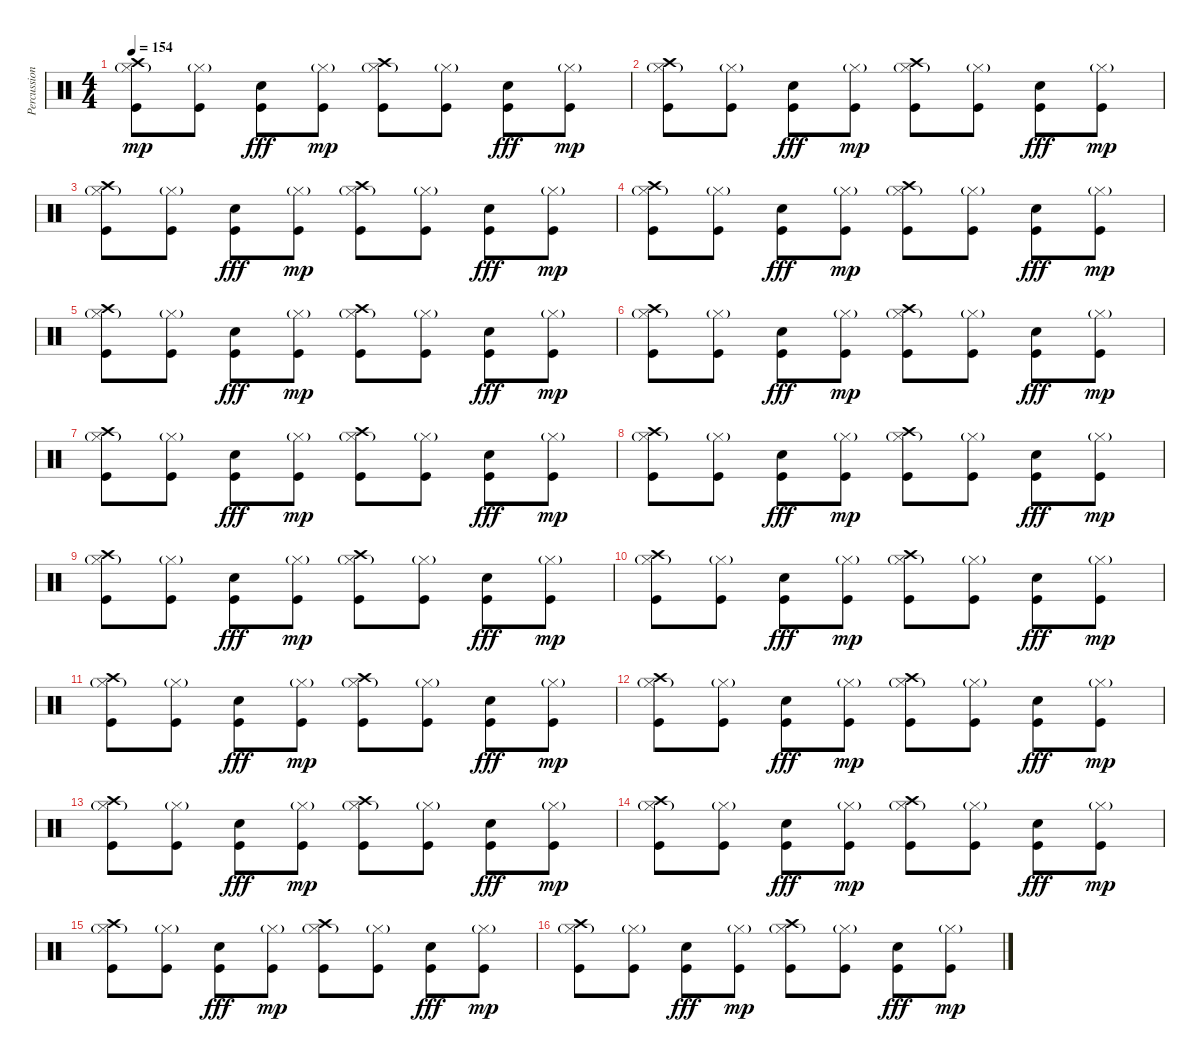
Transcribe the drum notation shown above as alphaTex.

\track ("Percussion" "Percussion") {instrument percussion}
\staff {score}
\articulation defaults
\ts (4 4)
\tempo 154
\clef neutral
\ks c
("Kick (hit)" "Hi-Hat (closed)"{g} "Crash high (hit)").8{dy mp} ("Kick (hit)" "Hi-Hat (closed)"{g}).8 ("Kick (hit)" "Electric Snare (hit)").8{dy fff} ("Kick (hit)" "Hi-Hat (closed)"{g}).8{dy mp} ("Kick (hit)" "Hi-Hat (closed)"{g} "Crash high (hit)").8 ("Kick (hit)" "Hi-Hat (closed)"{g}).8 ("Kick (hit)" "Electric Snare (hit)").8{dy fff} ("Kick (hit)" "Hi-Hat (closed)"{g}).8{dy mp} |
("Kick (hit)" "Hi-Hat (closed)"{g} "Crash high (hit)").8 ("Kick (hit)" "Hi-Hat (closed)"{g}).8 ("Kick (hit)" "Electric Snare (hit)").8{dy fff} ("Kick (hit)" "Hi-Hat (closed)"{g}).8{dy mp} ("Kick (hit)" "Hi-Hat (closed)"{g} "Crash high (hit)").8 ("Kick (hit)" "Hi-Hat (closed)"{g}).8 ("Kick (hit)" "Electric Snare (hit)").8{dy fff} ("Kick (hit)" "Hi-Hat (closed)"{g}).8{dy mp} |
("Kick (hit)" "Hi-Hat (closed)"{g} "Crash high (hit)").8 ("Kick (hit)" "Hi-Hat (closed)"{g}).8 ("Kick (hit)" "Electric Snare (hit)").8{dy fff} ("Kick (hit)" "Hi-Hat (closed)"{g}).8{dy mp} ("Kick (hit)" "Hi-Hat (closed)"{g} "Crash high (hit)").8 ("Kick (hit)" "Hi-Hat (closed)"{g}).8 ("Kick (hit)" "Electric Snare (hit)").8{dy fff} ("Kick (hit)" "Hi-Hat (closed)"{g}).8{dy mp} |
("Kick (hit)" "Hi-Hat (closed)"{g} "Crash high (hit)").8 ("Kick (hit)" "Hi-Hat (closed)"{g}).8 ("Kick (hit)" "Electric Snare (hit)").8{dy fff} ("Kick (hit)" "Hi-Hat (closed)"{g}).8{dy mp} ("Kick (hit)" "Hi-Hat (closed)"{g} "Crash high (hit)").8 ("Kick (hit)" "Hi-Hat (closed)"{g}).8 ("Kick (hit)" "Electric Snare (hit)").8{dy fff} ("Kick (hit)" "Hi-Hat (closed)"{g}).8{dy mp} |
("Kick (hit)" "Hi-Hat (closed)"{g} "Crash high (hit)").8 ("Kick (hit)" "Hi-Hat (closed)"{g}).8 ("Kick (hit)" "Electric Snare (hit)").8{dy fff} ("Kick (hit)" "Hi-Hat (closed)"{g}).8{dy mp} ("Kick (hit)" "Hi-Hat (closed)"{g} "Crash high (hit)").8 ("Kick (hit)" "Hi-Hat (closed)"{g}).8 ("Kick (hit)" "Electric Snare (hit)").8{dy fff} ("Kick (hit)" "Hi-Hat (closed)"{g}).8{dy mp} |
("Kick (hit)" "Hi-Hat (closed)"{g} "Crash high (hit)").8 ("Kick (hit)" "Hi-Hat (closed)"{g}).8 ("Kick (hit)" "Electric Snare (hit)").8{dy fff} ("Kick (hit)" "Hi-Hat (closed)"{g}).8{dy mp} ("Kick (hit)" "Hi-Hat (closed)"{g} "Crash high (hit)").8 ("Kick (hit)" "Hi-Hat (closed)"{g}).8 ("Kick (hit)" "Electric Snare (hit)").8{dy fff} ("Kick (hit)" "Hi-Hat (closed)"{g}).8{dy mp} |
("Kick (hit)" "Hi-Hat (closed)"{g} "Crash high (hit)").8 ("Kick (hit)" "Hi-Hat (closed)"{g}).8 ("Kick (hit)" "Electric Snare (hit)").8{dy fff} ("Kick (hit)" "Hi-Hat (closed)"{g}).8{dy mp} ("Kick (hit)" "Hi-Hat (closed)"{g} "Crash high (hit)").8 ("Kick (hit)" "Hi-Hat (closed)"{g}).8 ("Kick (hit)" "Electric Snare (hit)").8{dy fff} ("Kick (hit)" "Hi-Hat (closed)"{g}).8{dy mp} |
("Kick (hit)" "Hi-Hat (closed)"{g} "Crash high (hit)").8 ("Kick (hit)" "Hi-Hat (closed)"{g}).8 ("Kick (hit)" "Electric Snare (hit)").8{dy fff} ("Kick (hit)" "Hi-Hat (closed)"{g}).8{dy mp} ("Kick (hit)" "Hi-Hat (closed)"{g} "Crash high (hit)").8 ("Kick (hit)" "Hi-Hat (closed)"{g}).8 ("Kick (hit)" "Electric Snare (hit)").8{dy fff} ("Kick (hit)" "Hi-Hat (closed)"{g}).8{dy mp} |
("Kick (hit)" "Hi-Hat (closed)"{g} "Crash high (hit)").8 ("Kick (hit)" "Hi-Hat (closed)"{g}).8 ("Kick (hit)" "Electric Snare (hit)").8{dy fff} ("Kick (hit)" "Hi-Hat (closed)"{g}).8{dy mp} ("Kick (hit)" "Hi-Hat (closed)"{g} "Crash high (hit)").8 ("Kick (hit)" "Hi-Hat (closed)"{g}).8 ("Kick (hit)" "Electric Snare (hit)").8{dy fff} ("Kick (hit)" "Hi-Hat (closed)"{g}).8{dy mp} |
("Kick (hit)" "Hi-Hat (closed)"{g} "Crash high (hit)").8 ("Kick (hit)" "Hi-Hat (closed)"{g}).8 ("Kick (hit)" "Electric Snare (hit)").8{dy fff} ("Kick (hit)" "Hi-Hat (closed)"{g}).8{dy mp} ("Kick (hit)" "Hi-Hat (closed)"{g} "Crash high (hit)").8 ("Kick (hit)" "Hi-Hat (closed)"{g}).8 ("Kick (hit)" "Electric Snare (hit)").8{dy fff} ("Kick (hit)" "Hi-Hat (closed)"{g}).8{dy mp} |
("Kick (hit)" "Hi-Hat (closed)"{g} "Crash high (hit)").8 ("Kick (hit)" "Hi-Hat (closed)"{g}).8 ("Kick (hit)" "Electric Snare (hit)").8{dy fff} ("Kick (hit)" "Hi-Hat (closed)"{g}).8{dy mp} ("Kick (hit)" "Hi-Hat (closed)"{g} "Crash high (hit)").8 ("Kick (hit)" "Hi-Hat (closed)"{g}).8 ("Kick (hit)" "Electric Snare (hit)").8{dy fff} ("Kick (hit)" "Hi-Hat (closed)"{g}).8{dy mp} |
("Kick (hit)" "Hi-Hat (closed)"{g} "Crash high (hit)").8 ("Kick (hit)" "Hi-Hat (closed)"{g}).8 ("Kick (hit)" "Electric Snare (hit)").8{dy fff} ("Kick (hit)" "Hi-Hat (closed)"{g}).8{dy mp} ("Kick (hit)" "Hi-Hat (closed)"{g} "Crash high (hit)").8 ("Kick (hit)" "Hi-Hat (closed)"{g}).8 ("Kick (hit)" "Electric Snare (hit)").8{dy fff} ("Kick (hit)" "Hi-Hat (closed)"{g}).8{dy mp} |
("Kick (hit)" "Hi-Hat (closed)"{g} "Crash high (hit)").8 ("Kick (hit)" "Hi-Hat (closed)"{g}).8 ("Kick (hit)" "Electric Snare (hit)").8{dy fff} ("Kick (hit)" "Hi-Hat (closed)"{g}).8{dy mp} ("Kick (hit)" "Hi-Hat (closed)"{g} "Crash high (hit)").8 ("Kick (hit)" "Hi-Hat (closed)"{g}).8 ("Kick (hit)" "Electric Snare (hit)").8{dy fff} ("Kick (hit)" "Hi-Hat (closed)"{g}).8{dy mp} |
("Kick (hit)" "Hi-Hat (closed)"{g} "Crash high (hit)").8 ("Kick (hit)" "Hi-Hat (closed)"{g}).8 ("Kick (hit)" "Electric Snare (hit)").8{dy fff} ("Kick (hit)" "Hi-Hat (closed)"{g}).8{dy mp} ("Kick (hit)" "Hi-Hat (closed)"{g} "Crash high (hit)").8 ("Kick (hit)" "Hi-Hat (closed)"{g}).8 ("Kick (hit)" "Electric Snare (hit)").8{dy fff} ("Kick (hit)" "Hi-Hat (closed)"{g}).8{dy mp} |
("Kick (hit)" "Hi-Hat (closed)"{g} "Crash high (hit)").8 ("Kick (hit)" "Hi-Hat (closed)"{g}).8 ("Kick (hit)" "Electric Snare (hit)").8{dy fff} ("Kick (hit)" "Hi-Hat (closed)"{g}).8{dy mp} ("Kick (hit)" "Hi-Hat (closed)"{g} "Crash high (hit)").8 ("Kick (hit)" "Hi-Hat (closed)"{g}).8 ("Kick (hit)" "Electric Snare (hit)").8{dy fff} ("Kick (hit)" "Hi-Hat (closed)"{g}).8{dy mp} |
("Kick (hit)" "Hi-Hat (closed)"{g} "Crash high (hit)").8 ("Kick (hit)" "Hi-Hat (closed)"{g}).8 ("Kick (hit)" "Electric Snare (hit)").8{dy fff} ("Kick (hit)" "Hi-Hat (closed)"{g}).8{dy mp} ("Kick (hit)" "Hi-Hat (closed)"{g} "Crash high (hit)").8 ("Kick (hit)" "Hi-Hat (closed)"{g}).8 ("Kick (hit)" "Electric Snare (hit)").8{dy fff} ("Kick (hit)" "Hi-Hat (closed)"{g}).8{dy mp}
